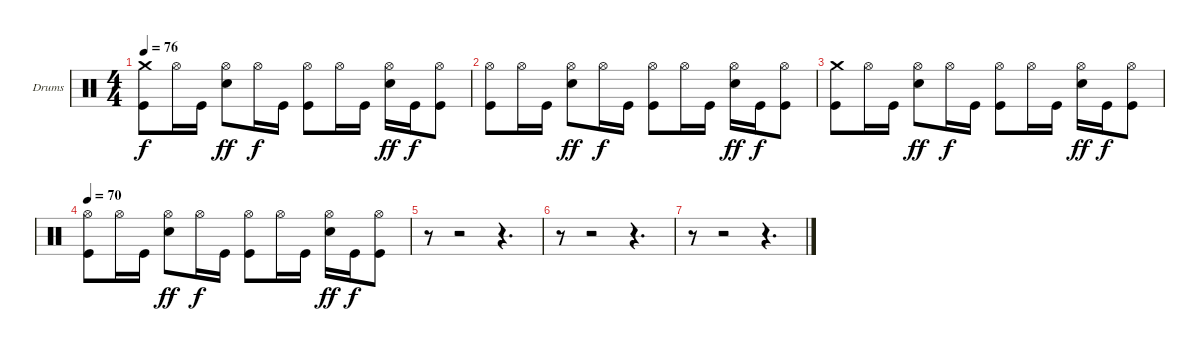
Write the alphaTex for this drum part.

\bracketExtendMode groupsimilarinstruments
\firstSystemTrackNameOrientation horizontal
\otherSystemsTrackNameOrientation horizontal
\track ("Drumkit" "Drums") {instrument percussion}
\staff {score}
\articulation defaults
\ts (4 4)
\tempo 76
\clef neutral
\ks c
("Crash medium (hit)" "Kick (hit)").8{dy f} "Hi-Hat (open)".16 "Kick (hit)".16 ("Snare (hit) 2" "Hi-Hat (open)").8{dy ff} "Hi-Hat (open)".16{dy f} "Kick (hit)".16 ("Kick (hit)" "Hi-Hat (open)").8 "Hi-Hat (open)".16 "Kick (hit)".16 ("Snare (hit) 2" "Hi-Hat (open)").16{dy ff} "Kick (hit)".16{dy f} ("Kick (hit)" "Hi-Hat (open)").8 |
("Hi-Hat (open)" "Kick (hit)").8 "Hi-Hat (open)".16 "Kick (hit)".16 ("Snare (hit) 2" "Hi-Hat (open)").8{dy ff} "Hi-Hat (open)".16{dy f} "Kick (hit)".16 ("Kick (hit)" "Hi-Hat (open)").8 "Hi-Hat (open)".16 "Kick (hit)".16 ("Snare (hit) 2" "Hi-Hat (open)").16{dy ff} "Kick (hit)".16{dy f} ("Kick (hit)" "Hi-Hat (open)").8 |
("Crash medium (hit)" "Kick (hit)").8 "Hi-Hat (open)".16 "Kick (hit)".16 ("Snare (hit) 2" "Hi-Hat (open)").8{dy ff} "Hi-Hat (open)".16{dy f} "Kick (hit)".16 ("Kick (hit)" "Hi-Hat (open)").8 "Hi-Hat (open)".16 "Kick (hit)".16 ("Snare (hit) 2" "Hi-Hat (open)").16{dy ff} "Kick (hit)".16{dy f} ("Kick (hit)" "Hi-Hat (open)").8 |
\tempo 70
("Hi-Hat (open)" "Kick (hit)").8 "Hi-Hat (open)".16 "Kick (hit)".16 ("Snare (hit) 2" "Hi-Hat (open)").8{dy ff} "Hi-Hat (open)".16{dy f} "Kick (hit)".16 ("Kick (hit)" "Hi-Hat (open)").8 "Hi-Hat (open)".16 "Kick (hit)".16 ("Snare (hit) 2" "Hi-Hat (open)").16{dy ff} "Kick (hit)".16{dy f} ("Kick (hit)" "Hi-Hat (open)").8 |
r.8 r.2 r.4{d} |
r.8 r.2 r.4{d} |
r.8 r.2 r.4{d}
